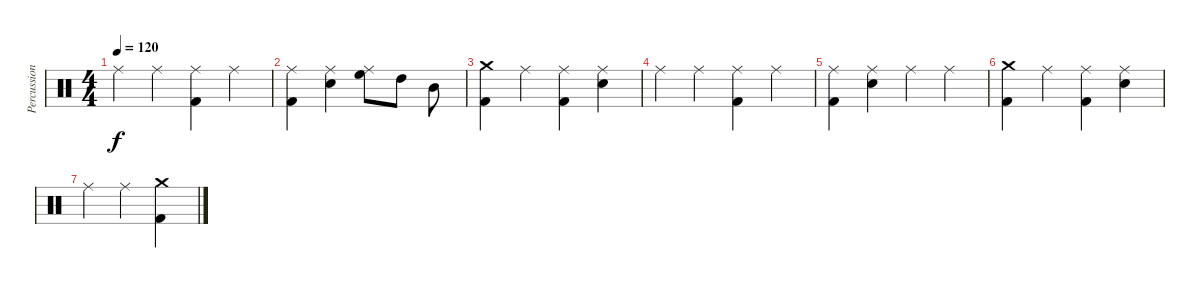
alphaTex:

\track ("Percussion" "Percussion") {instrument percussion}
\staff {score}
\articulation defaults
\ts (4 4)
\tempo 120
\clef neutral
\ks c "Ride (middle)".4{dy f} "Ride (middle)".4
("Ride (middle)" "Kick (hit) 2").4 "Ride (middle)".4 |
("Ride (middle)" "Kick (hit) 2").4 ("Ride (middle)" "Electric Snare (hit)").4 ("Ride (middle)" "High Floor Tom (hit)").8 "High Tom (hit)".8 "Mid Tom (hit)".8 |
("Crash medium (hit)" "Kick (hit) 2").4 "Ride (middle)".4 ("Ride (middle)" "Kick (hit) 2").4 ("Ride (middle)" "Electric Snare (hit)").4 |
"Ride (middle)".4 "Ride (middle)".4 ("Ride (middle)" "Kick (hit) 2").4 "Ride (middle)".4 |
("Ride (middle)" "Kick (hit) 2").4 ("Ride (middle)" "Electric Snare (hit)").4 "Ride (middle)".4 "Ride (middle)".4 |
("Crash medium (hit)" "Kick (hit) 2").4 "Ride (middle)".4 ("Ride (middle)" "Kick (hit) 2").4 ("Ride (middle)" "Electric Snare (hit)").4 |
"Ride (middle)".4 "Ride (middle)".4 ("Crash medium (hit)" "Kick (hit) 2").4
